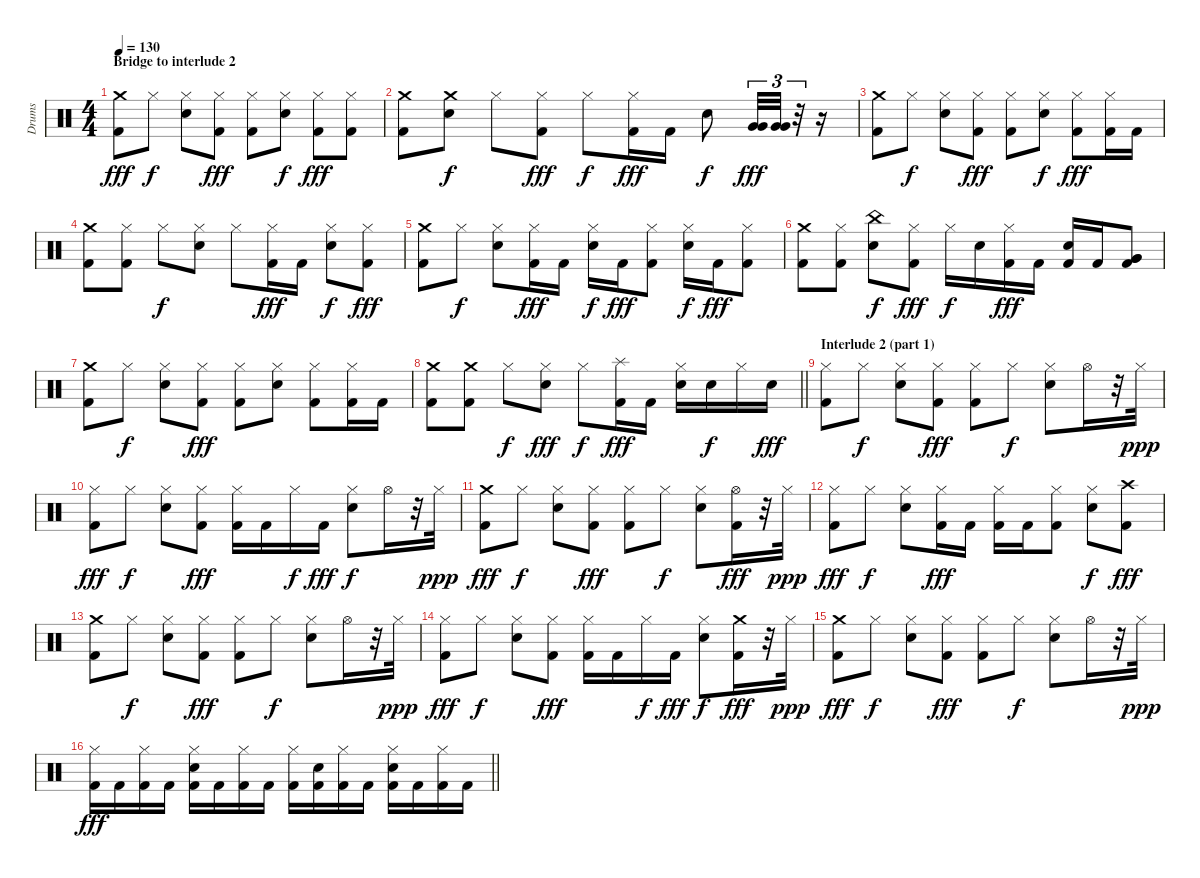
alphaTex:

\track ("Drums" "Drums") {instrument percussion}
\staff {score}
\articulation defaults
\ts (4 4)
\section ("" "Bridge to interlude 2")
\tempo 130
\clef neutral
\ks c
("Crash medium (hit)" "Kick (hit) 2").8{dy fff volume 12} "Hi-Hat (closed)".8{dy f} ("Hi-Hat (closed)" "Snare (hit) 2").8 ("Hi-Hat (closed)" "Kick (hit) 2").8{dy fff} ("Hi-Hat (closed)" "Kick (hit) 2").8 ("Hi-Hat (closed)" "Snare (hit) 2").8{dy f} ("Hi-Hat (closed)" "Kick (hit) 2").8{dy fff} ("Hi-Hat (closed)" "Kick (hit) 2").8 |
("Crash medium (hit)" "Kick (hit) 2").8 ("Crash medium (hit)" "Snare (hit) 2").8{dy f} "Hi-Hat (closed)".8 ("Hi-Hat (closed)" "Kick (hit) 2").8{dy fff} "Hi-Hat (closed)".8{dy f} ("Hi-Hat (closed)" "Kick (hit) 2").16{dy fff} "Kick (hit) 2".16 "Snare (hit) 2".8{dy f} ("Very Low Tom (hit)" "Very Low Tom (hit)").32{tu (3 2) dy fff volume 16} ("Very Low Tom (hit)" "Very Low Tom (hit)").32{tu (3 2)} r.32{tu (3 2)} r.16 |
("Crash medium (hit)" "Kick (hit) 2").8{volume 13} "Hi-Hat (closed)".8{dy f} ("Hi-Hat (closed)" "Snare (hit) 2").8 ("Hi-Hat (closed)" "Kick (hit) 2").8{dy fff} ("Hi-Hat (closed)" "Kick (hit) 2").8 ("Hi-Hat (closed)" "Snare (hit) 2").8{dy f} ("Hi-Hat (closed)" "Kick (hit) 2").8{dy fff} ("Hi-Hat (closed)" "Kick (hit) 2").16 "Kick (hit) 2".16 |
("Crash medium (hit)" "Kick (hit) 2").8 ("Hi-Hat (closed)" "Kick (hit) 2").8 "Hi-Hat (closed)".8{dy f} ("Hi-Hat (closed)" "Snare (hit) 2").8 "Hi-Hat (closed)".8 ("Hi-Hat (closed)" "Kick (hit) 2").16{dy fff} "Kick (hit) 2".16 ("Hi-Hat (closed)" "Snare (hit) 2").8{dy f} ("Hi-Hat (closed)" "Kick (hit) 2").8{dy fff} |
("Crash medium (hit)" "Kick (hit) 2").8 "Hi-Hat (closed)".8{dy f} ("Hi-Hat (closed)" "Snare (hit) 2").8 ("Hi-Hat (closed)" "Kick (hit) 2").16{dy fff} "Kick (hit) 2".16 ("Hi-Hat (closed)" "Snare (hit) 2").16{dy f} "Kick (hit) 2".16{dy fff} ("Hi-Hat (closed)" "Kick (hit) 2").8 ("Hi-Hat (closed)" "Snare (hit) 2").16{dy f} "Kick (hit) 2".16{dy fff} ("Hi-Hat (closed)" "Kick (hit) 2").8 |
("Crash medium (hit)" "Kick (hit) 2").8 ("Hi-Hat (closed)" "Kick (hit) 2").8 ("China (hit)" "Snare (hit) 2").8{dy f} ("Hi-Hat (closed)" "Kick (hit) 2").8{dy fff} "Hi-Hat (closed)".16{dy f} "Snare (hit) 2".16 ("Hi-Hat (closed)" "Kick (hit) 2").16{dy fff} "Kick (hit) 2".16 ("Snare (hit) 2" "Kick (hit) 2").16 "Kick (hit) 2".16 ("Very Low Tom (hit)" "Very Low Tom (hit)" "Kick (hit) 2").8 |
("Crash medium (hit)" "Kick (hit) 2").8 "Hi-Hat (closed)".8{dy f} ("Hi-Hat (closed)" "Snare (hit) 2").8 ("Hi-Hat (closed)" "Kick (hit) 2").8{dy fff} ("Hi-Hat (closed)" "Kick (hit) 2").8 ("Hi-Hat (closed)" "Snare (hit) 2").8 ("Hi-Hat (closed)" "Kick (hit) 2").8 ("Hi-Hat (closed)" "Kick (hit) 2").16 "Kick (hit) 2".16 |
\barLineRight lightlight
("Crash medium (hit)" "Kick (hit) 2").8 ("Crash medium (hit)" "Kick (hit) 2").8 "Hi-Hat (closed)".8{dy f} ("Hi-Hat (closed)" "Snare (hit) 2").8{dy fff} "Hi-Hat (closed)".8{dy f} ("Splash (hit)" "Kick (hit) 2").16{dy fff} "Kick (hit) 2".16 ("Hi-Hat (closed)" "Snare (hit) 2").16 "Snare (hit) 2".16{dy f} "Hi-Hat (closed)".16 "Snare (hit) 2".16{dy fff} |
\section ("" "Interlude 2 (part 1)")
("Hi-Hat (closed)" "Kick (hit) 2").8 "Hi-Hat (closed)".8{dy f} ("Hi-Hat (closed)" "Snare (hit) 2").8 ("Hi-Hat (closed)" "Kick (hit) 2").8{dy fff} ("Hi-Hat (closed)" "Kick (hit) 2").8 "Hi-Hat (closed)".8{dy f} ("Hi-Hat (closed)" "Snare (hit) 2").8 "Hi-Hat (open)".16 r.32 "Hi-Hat (closed)".32{dy ppp} |
("Hi-Hat (closed)" "Kick (hit) 2").8{dy fff} "Hi-Hat (closed)".8{dy f} ("Hi-Hat (closed)" "Snare (hit) 2").8 ("Hi-Hat (closed)" "Kick (hit) 2").8{dy fff} ("Hi-Hat (closed)" "Kick (hit) 2").16 "Kick (hit) 2".16 "Hi-Hat (closed)".16{dy f} "Kick (hit) 2".16{dy fff} ("Hi-Hat (closed)" "Snare (hit) 2").8{dy f} "Hi-Hat (open)".16 r.32 "Hi-Hat (closed)".32{dy ppp} |
("Crash medium (hit)" "Kick (hit) 2").8{dy fff} "Hi-Hat (closed)".8{dy f} ("Hi-Hat (closed)" "Snare (hit) 2").8 ("Hi-Hat (closed)" "Kick (hit) 2").8{dy fff} ("Hi-Hat (closed)" "Kick (hit) 2").8 "Hi-Hat (closed)".8{dy f} ("Hi-Hat (closed)" "Snare (hit) 2").8 ("Hi-Hat (open)" "Kick (hit) 2").16{dy fff} r.32 "Hi-Hat (closed)".32{dy ppp} |
("Hi-Hat (closed)" "Kick (hit) 2").8{dy fff} "Hi-Hat (closed)".8{dy f} ("Hi-Hat (closed)" "Snare (hit) 2").8 ("Hi-Hat (closed)" "Kick (hit) 2").16{dy fff} "Kick (hit) 2".16 ("Hi-Hat (closed)" "Kick (hit) 2").16 "Kick (hit) 2".16 ("Hi-Hat (closed)" "Kick (hit) 2").8 ("Hi-Hat (closed)" "Snare (hit) 2").8{dy f} ("Crash high (hit)" "Kick (hit) 2").8{dy fff} |
("Crash medium (hit)" "Kick (hit) 2").8 "Hi-Hat (closed)".8{dy f} ("Hi-Hat (closed)" "Snare (hit) 2").8 ("Hi-Hat (closed)" "Kick (hit) 2").8{dy fff} ("Hi-Hat (closed)" "Kick (hit) 2").8 "Hi-Hat (closed)".8{dy f} ("Hi-Hat (closed)" "Snare (hit) 2").8 "Hi-Hat (open)".16 r.32 "Hi-Hat (closed)".32{dy ppp} |
("Hi-Hat (closed)" "Kick (hit) 2").8{dy fff} "Hi-Hat (closed)".8{dy f} ("Hi-Hat (closed)" "Snare (hit) 2").8 ("Hi-Hat (closed)" "Kick (hit) 2").8{dy fff} ("Hi-Hat (closed)" "Kick (hit) 2").16 "Kick (hit) 2".16 "Hi-Hat (closed)".16{dy f} "Kick (hit) 2".16{dy fff} ("Hi-Hat (closed)" "Snare (hit) 2").8{dy f} ("Crash medium (hit)" "Kick (hit) 2").16{dy fff} r.32 "Hi-Hat (closed)".32{dy ppp} |
("Crash medium (hit)" "Kick (hit) 2").8{dy fff} "Hi-Hat (closed)".8{dy f} ("Hi-Hat (closed)" "Snare (hit) 2").8 ("Hi-Hat (closed)" "Kick (hit) 2").8{dy fff} ("Hi-Hat (closed)" "Kick (hit) 2").8 "Hi-Hat (closed)".8{dy f} ("Hi-Hat (closed)" "Snare (hit) 2").8 "Hi-Hat (open)".16 r.32 "Hi-Hat (closed)".32{dy ppp} |
\barLineRight lightlight
("Hi-Hat (closed)" "Kick (hit) 2").16{dy fff} "Kick (hit) 2".16 ("Hi-Hat (closed)" "Kick (hit) 2").16 "Kick (hit) 2".16 ("Hi-Hat (closed)" "Snare (hit) 2" "Kick (hit) 2").16 "Kick (hit) 2".16 ("Hi-Hat (closed)" "Kick (hit) 2").16 "Kick (hit) 2".16 ("Hi-Hat (closed)" "Kick (hit) 2").16 ("Snare (hit) 2" "Kick (hit) 2").16 ("Hi-Hat (closed)" "Kick (hit) 2").16 "Kick (hit) 2".16 ("Hi-Hat (closed)" "Snare (hit) 2" "Kick (hit) 2").16 "Kick (hit) 2".16 ("Hi-Hat (closed)" "Kick (hit) 2").16 "Kick (hit) 2".16
